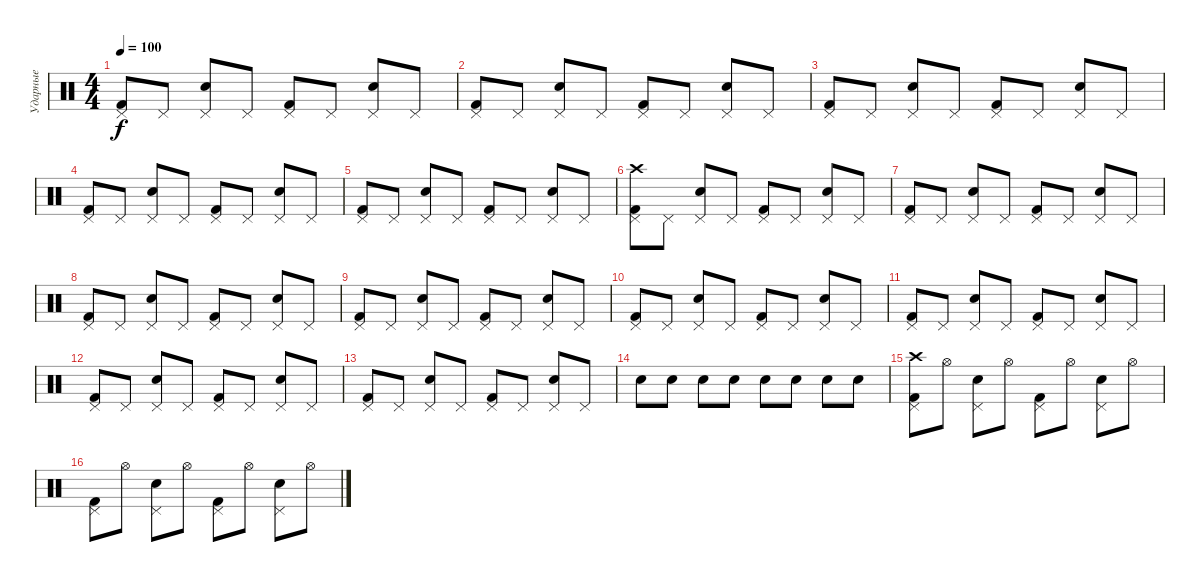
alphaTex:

\track ("Ударные" "Ударные") {instrument percussion}
\staff {score}
\articulation defaults
\ts (4 4)
\tempo 100
\clef neutral
\ks c
("Pedal Hi-Hat (hit)" "Kick (hit) 2").8{dy f} "Pedal Hi-Hat (hit)".8 ("Snare (hit) 2" "Pedal Hi-Hat (hit)").8 "Pedal Hi-Hat (hit)".8 ("Kick (hit) 2" "Pedal Hi-Hat (hit)").8 "Pedal Hi-Hat (hit)".8 ("Snare (hit) 2" "Pedal Hi-Hat (hit)").8 "Pedal Hi-Hat (hit)".8 |
("Pedal Hi-Hat (hit)" "Kick (hit) 2").8 "Pedal Hi-Hat (hit)".8 ("Snare (hit) 2" "Pedal Hi-Hat (hit)").8 "Pedal Hi-Hat (hit)".8 ("Kick (hit) 2" "Pedal Hi-Hat (hit)").8 "Pedal Hi-Hat (hit)".8 ("Snare (hit) 2" "Pedal Hi-Hat (hit)").8 "Pedal Hi-Hat (hit)".8 |
("Pedal Hi-Hat (hit)" "Kick (hit) 2").8 "Pedal Hi-Hat (hit)".8 ("Snare (hit) 2" "Pedal Hi-Hat (hit)").8 "Pedal Hi-Hat (hit)".8 ("Kick (hit) 2" "Pedal Hi-Hat (hit)").8 "Pedal Hi-Hat (hit)".8 ("Snare (hit) 2" "Pedal Hi-Hat (hit)").8 "Pedal Hi-Hat (hit)".8 |
("Pedal Hi-Hat (hit)" "Kick (hit) 2").8 "Pedal Hi-Hat (hit)".8 ("Snare (hit) 2" "Pedal Hi-Hat (hit)").8 "Pedal Hi-Hat (hit)".8 ("Kick (hit) 2" "Pedal Hi-Hat (hit)").8 "Pedal Hi-Hat (hit)".8 ("Snare (hit) 2" "Pedal Hi-Hat (hit)").8 "Pedal Hi-Hat (hit)".8 |
("Pedal Hi-Hat (hit)" "Kick (hit) 2").8 "Pedal Hi-Hat (hit)".8 ("Snare (hit) 2" "Pedal Hi-Hat (hit)").8 "Pedal Hi-Hat (hit)".8 ("Kick (hit) 2" "Pedal Hi-Hat (hit)").8 "Pedal Hi-Hat (hit)".8 ("Snare (hit) 2" "Pedal Hi-Hat (hit)").8 "Pedal Hi-Hat (hit)".8 |
("Pedal Hi-Hat (hit)" "Crash high (hit)" "Kick (hit) 2").8 "Pedal Hi-Hat (hit)".8 ("Snare (hit) 2" "Pedal Hi-Hat (hit)").8 "Pedal Hi-Hat (hit)".8 ("Kick (hit) 2" "Pedal Hi-Hat (hit)").8 "Pedal Hi-Hat (hit)".8 ("Snare (hit) 2" "Pedal Hi-Hat (hit)").8 "Pedal Hi-Hat (hit)".8 |
("Pedal Hi-Hat (hit)" "Kick (hit) 2").8 "Pedal Hi-Hat (hit)".8 ("Snare (hit) 2" "Pedal Hi-Hat (hit)").8 "Pedal Hi-Hat (hit)".8 ("Kick (hit) 2" "Pedal Hi-Hat (hit)").8 "Pedal Hi-Hat (hit)".8 ("Snare (hit) 2" "Pedal Hi-Hat (hit)").8 "Pedal Hi-Hat (hit)".8 |
("Pedal Hi-Hat (hit)" "Kick (hit) 2").8 "Pedal Hi-Hat (hit)".8 ("Snare (hit) 2" "Pedal Hi-Hat (hit)").8 "Pedal Hi-Hat (hit)".8 ("Kick (hit) 2" "Pedal Hi-Hat (hit)").8 "Pedal Hi-Hat (hit)".8 ("Snare (hit) 2" "Pedal Hi-Hat (hit)").8 "Pedal Hi-Hat (hit)".8 |
("Pedal Hi-Hat (hit)" "Kick (hit) 2").8 "Pedal Hi-Hat (hit)".8 ("Snare (hit) 2" "Pedal Hi-Hat (hit)").8 "Pedal Hi-Hat (hit)".8 ("Kick (hit) 2" "Pedal Hi-Hat (hit)").8 "Pedal Hi-Hat (hit)".8 ("Snare (hit) 2" "Pedal Hi-Hat (hit)").8 "Pedal Hi-Hat (hit)".8 |
("Pedal Hi-Hat (hit)" "Kick (hit) 2").8 "Pedal Hi-Hat (hit)".8 ("Snare (hit) 2" "Pedal Hi-Hat (hit)").8 "Pedal Hi-Hat (hit)".8 ("Kick (hit) 2" "Pedal Hi-Hat (hit)").8 "Pedal Hi-Hat (hit)".8 ("Snare (hit) 2" "Pedal Hi-Hat (hit)").8 "Pedal Hi-Hat (hit)".8 |
("Pedal Hi-Hat (hit)" "Kick (hit) 2").8 "Pedal Hi-Hat (hit)".8 ("Snare (hit) 2" "Pedal Hi-Hat (hit)").8 "Pedal Hi-Hat (hit)".8 ("Kick (hit) 2" "Pedal Hi-Hat (hit)").8 "Pedal Hi-Hat (hit)".8 ("Snare (hit) 2" "Pedal Hi-Hat (hit)").8 "Pedal Hi-Hat (hit)".8 |
("Pedal Hi-Hat (hit)" "Kick (hit) 2").8 "Pedal Hi-Hat (hit)".8 ("Snare (hit) 2" "Pedal Hi-Hat (hit)").8 "Pedal Hi-Hat (hit)".8 ("Kick (hit) 2" "Pedal Hi-Hat (hit)").8 "Pedal Hi-Hat (hit)".8 ("Snare (hit) 2" "Pedal Hi-Hat (hit)").8 "Pedal Hi-Hat (hit)".8 |
("Pedal Hi-Hat (hit)" "Kick (hit) 2").8 "Pedal Hi-Hat (hit)".8 ("Snare (hit) 2" "Pedal Hi-Hat (hit)").8 "Pedal Hi-Hat (hit)".8 ("Kick (hit) 2" "Pedal Hi-Hat (hit)").8 "Pedal Hi-Hat (hit)".8 ("Snare (hit) 2" "Pedal Hi-Hat (hit)").8 "Pedal Hi-Hat (hit)".8 |
"Snare (hit) 2".8 "Snare (hit) 2".8 "Snare (hit) 2".8 "Snare (hit) 2".8 "Snare (hit) 2".8 "Snare (hit) 2".8 "Snare (hit) 2".8 "Snare (hit) 2".8 |
("Pedal Hi-Hat (hit)" "Crash high (hit)" "Kick (hit) 2").8 "Hi-Hat (open)".8 ("Snare (hit) 2" "Pedal Hi-Hat (hit)").8 "Hi-Hat (open)".8 ("Kick (hit) 2" "Pedal Hi-Hat (hit)").8 "Hi-Hat (open)".8 ("Snare (hit) 2" "Pedal Hi-Hat (hit)").8 "Hi-Hat (open)".8 |
("Pedal Hi-Hat (hit)" "Kick (hit) 2").8 "Hi-Hat (open)".8 ("Snare (hit) 2" "Pedal Hi-Hat (hit)").8 "Hi-Hat (open)".8 ("Kick (hit) 2" "Pedal Hi-Hat (hit)").8 "Hi-Hat (open)".8 ("Snare (hit) 2" "Pedal Hi-Hat (hit)").8 "Hi-Hat (open)".8
